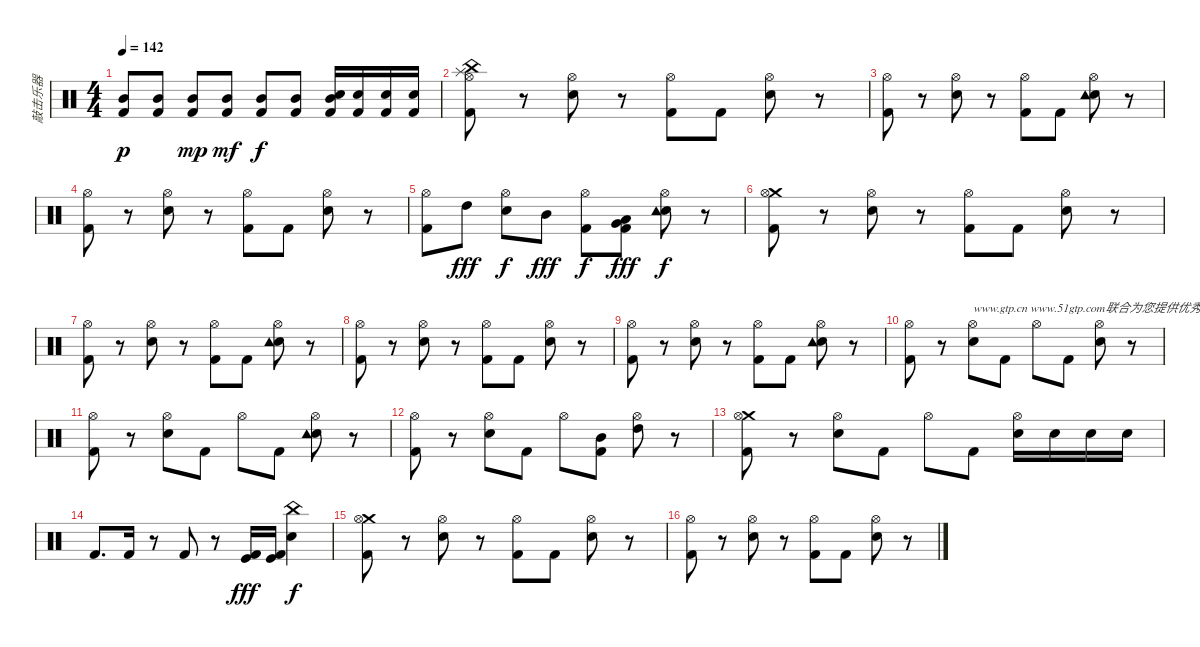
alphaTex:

\track ("敲击乐器" "敲击乐器") {instrument percussion}
\staff {score}
\articulation defaults
\ts (4 4)
\tempo 142
\clef neutral
\ks c
("Mid Tom (hit)" "Kick (hit) 2").8{dy p} ("Mid Tom (hit)" "Kick (hit) 2").8 ("Mid Tom (hit)" "Kick (hit) 2").8{dy mp} ("Mid Tom (hit)" "Kick (hit) 2").8{dy mf} ("Mid Tom (hit)" "Kick (hit) 2").8{dy f} ("Mid Tom (hit)" "Kick (hit) 2").8 ("Mid Tom (hit)" "Snare (hit) 2" "Kick (hit) 2").16 ("Snare (hit) 2" "Kick (hit) 2").16 ("Snare (hit) 2" "Kick (hit) 2").16 ("Snare (hit) 2" "Kick (hit) 2").16 |
("China (hit)" "Splash (hit)" "Hi-Hat (open)" "Kick (hit) 2").8 r.8 ("Snare (hit) 2" "Hi-Hat (open)").8 r.8 ("Hi-Hat (open)" "Kick (hit) 2").8 "Kick (hit) 2".8 ("Snare (hit) 2" "Hi-Hat (open)").8 r.8 |
("Hi-Hat (open)" "Kick (hit) 2").8 r.8 ("Snare (hit) 2" "Hi-Hat (open)").8 r.8 ("Hi-Hat (open)" "Kick (hit) 2").8 "Kick (hit) 2".8 ("Snare (hit) 2" "Tambourine (hit)" "Hi-Hat (open)").8 r.8 |
("Hi-Hat (open)" "Kick (hit) 2").8 r.8 ("Snare (hit) 2" "Hi-Hat (open)").8 r.8 ("Hi-Hat (open)" "Kick (hit) 2").8 "Kick (hit) 2".8 ("Snare (hit) 2" "Hi-Hat (open)").8 r.8 |
("Hi-Hat (open)" "Kick (hit) 2").8 "High Tom (hit)".8{dy fff} ("Snare (hit) 2" "Hi-Hat (open)").8{dy f} "Mid Tom (hit)".8{dy fff} ("Hi-Hat (open)" "Kick (hit) 2").8{dy f} ("Very Low Tom (hit)" "Low Floor Tom (hit)" "Kick (hit) 2").8{dy fff} ("Snare (hit) 2" "Tambourine (hit)" "Hi-Hat (open)").8{dy f} r.8 |
("Crash medium (hit)" "Hi-Hat (open)" "Kick (hit) 2").8 r.8 ("Snare (hit) 2" "Hi-Hat (open)").8 r.8 ("Hi-Hat (open)" "Kick (hit) 2").8 "Kick (hit) 2".8 ("Snare (hit) 2" "Hi-Hat (open)").8 r.8 |
("Hi-Hat (open)" "Kick (hit) 2").8 r.8 ("Snare (hit) 2" "Hi-Hat (open)").8 r.8 ("Hi-Hat (open)" "Kick (hit) 2").8 "Kick (hit) 2".8 ("Snare (hit) 2" "Tambourine (hit)" "Hi-Hat (open)").8 r.8 |
("Hi-Hat (open)" "Kick (hit) 2").8 r.8 ("Snare (hit) 2" "Hi-Hat (open)").8 r.8 ("Hi-Hat (open)" "Kick (hit) 2").8 "Kick (hit) 2".8 ("Snare (hit) 2" "Hi-Hat (open)").8 r.8 |
("Hi-Hat (open)" "Kick (hit) 2").8 r.8 ("Snare (hit) 2" "Hi-Hat (open)").8 r.8 ("Hi-Hat (open)" "Kick (hit) 2").8 "Kick (hit) 2".8 ("Snare (hit) 2" "Tambourine (hit)" "Hi-Hat (open)").8 r.8 |
("Hi-Hat (open)" "Kick (hit) 2").8 r.8 ("Snare (hit) 2" "Hi-Hat (open)").8{txt "www.gtp.cn www.51gtp.com联合为您提供优秀的GTP!"} "Kick (hit) 2".8 "Hi-Hat (open)".8 "Kick (hit) 2".8 ("Snare (hit) 2" "Hi-Hat (open)").8 r.8 |
("Hi-Hat (open)" "Kick (hit) 2").8 r.8 ("Snare (hit) 2" "Hi-Hat (open)").8 "Kick (hit) 2".8 "Hi-Hat (open)".8 "Kick (hit) 2".8 ("Snare (hit) 2" "Tambourine (hit)" "Hi-Hat (open)").8 r.8 |
("Hi-Hat (open)" "Kick (hit) 2").8 r.8 ("Snare (hit) 2" "Hi-Hat (open)").8 "Kick (hit) 2".8 "Hi-Hat (open)".8 ("Mid Tom (hit)" "Kick (hit) 2").8 ("High Tom (hit)" "Hi-Hat (open)").8 r.8 |
("Crash medium (hit)" "Hi-Hat (open)" "Kick (hit) 2").8 r.8 ("Snare (hit) 2" "Hi-Hat (open)").8 "Kick (hit) 2".8 "Hi-Hat (open)".8 "Kick (hit) 2".8 ("Snare (hit) 2" "Hi-Hat (open)").16 "Snare (hit) 2".16 "Snare (hit) 2".16 "Snare (hit) 2".16 |
"Kick (hit) 2".8{d} "Kick (hit) 2".16 r.8 "Kick (hit) 2".8 r.8 ("Kick (hit)" "Kick (hit) 2").16{dy fff} ("Kick (hit)" "Kick (hit) 2").16 ("Snare (hit) 2" "China (hit)").4{dy f} |
("Crash medium (hit)" "Hi-Hat (open)" "Kick (hit) 2").8 r.8 ("Snare (hit) 2" "Hi-Hat (open)").8 r.8 ("Hi-Hat (open)" "Kick (hit) 2").8 "Kick (hit) 2".8 ("Snare (hit) 2" "Hi-Hat (open)").8 r.8 |
("Hi-Hat (open)" "Kick (hit) 2").8 r.8 ("Snare (hit) 2" "Hi-Hat (open)").8 r.8 ("Hi-Hat (open)" "Kick (hit) 2").8 "Kick (hit) 2".8 ("Snare (hit) 2" "Hi-Hat (open)").8 r.8
